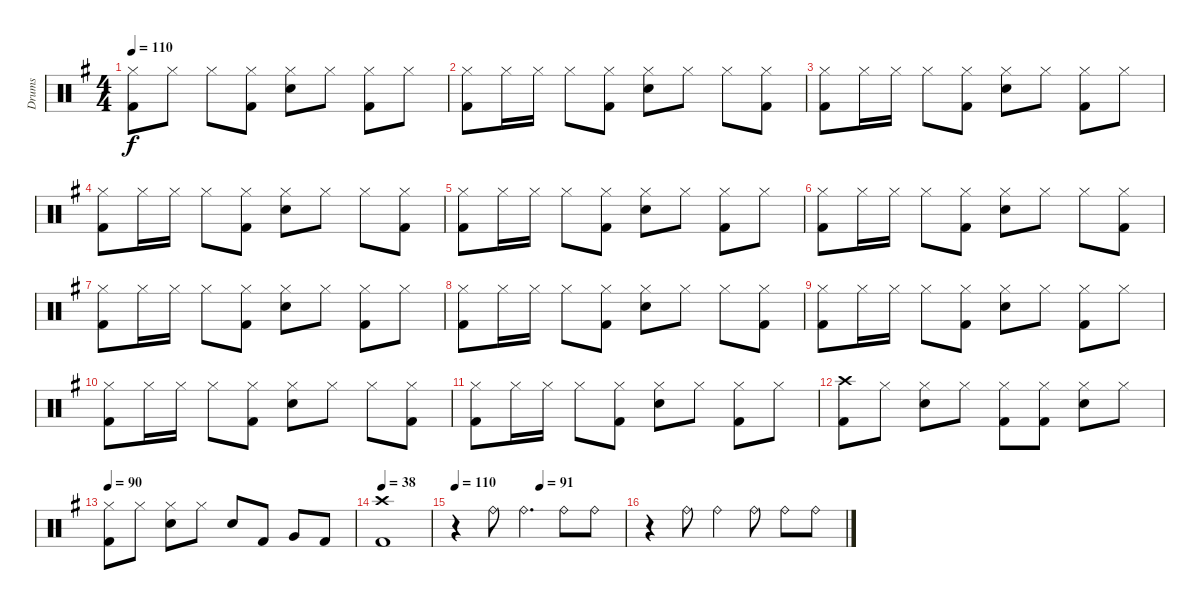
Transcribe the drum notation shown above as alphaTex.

\track ("Drums" "Drums") {instrument percussion}
\staff {score}
\articulation defaults
\ts (4 4)
\tempo 110
\clef neutral
\ks eminor
("Hi-Hat (closed)" "Kick (hit) 2").8{dy f} "Hi-Hat (closed)".8 "Hi-Hat (closed)".8 ("Hi-Hat (closed)" "Kick (hit) 2").8 ("Hi-Hat (closed)" "Electric Snare (hit)").8 "Hi-Hat (closed)".8 ("Hi-Hat (closed)" "Kick (hit) 2").8 "Hi-Hat (closed)".8 |
("Hi-Hat (closed)" "Kick (hit) 2").8 "Hi-Hat (closed)".16 "Hi-Hat (closed)".16 "Hi-Hat (closed)".8 ("Hi-Hat (closed)" "Kick (hit) 2").8 ("Hi-Hat (closed)" "Electric Snare (hit)").8 "Hi-Hat (closed)".8 "Hi-Hat (closed)".8 ("Hi-Hat (closed)" "Kick (hit) 2").8 |
("Hi-Hat (closed)" "Kick (hit) 2").8 "Hi-Hat (closed)".16 "Hi-Hat (closed)".16 "Hi-Hat (closed)".8 ("Hi-Hat (closed)" "Kick (hit) 2").8 ("Hi-Hat (closed)" "Electric Snare (hit)").8 "Hi-Hat (closed)".8 ("Hi-Hat (closed)" "Kick (hit) 2").8 "Hi-Hat (closed)".8 |
("Hi-Hat (closed)" "Kick (hit) 2").8 "Hi-Hat (closed)".16 "Hi-Hat (closed)".16 "Hi-Hat (closed)".8 ("Hi-Hat (closed)" "Kick (hit) 2").8 ("Hi-Hat (closed)" "Electric Snare (hit)").8 "Hi-Hat (closed)".8 "Hi-Hat (closed)".8 ("Hi-Hat (closed)" "Kick (hit) 2").8 |
("Hi-Hat (closed)" "Kick (hit) 2").8 "Hi-Hat (closed)".16 "Hi-Hat (closed)".16 "Hi-Hat (closed)".8 ("Hi-Hat (closed)" "Kick (hit) 2").8 ("Hi-Hat (closed)" "Electric Snare (hit)").8 "Hi-Hat (closed)".8 ("Hi-Hat (closed)" "Kick (hit) 2").8 "Hi-Hat (closed)".8 |
("Hi-Hat (closed)" "Kick (hit) 2").8 "Hi-Hat (closed)".16 "Hi-Hat (closed)".16 "Hi-Hat (closed)".8 ("Hi-Hat (closed)" "Kick (hit) 2").8 ("Hi-Hat (closed)" "Electric Snare (hit)").8 "Hi-Hat (closed)".8 "Hi-Hat (closed)".8 ("Hi-Hat (closed)" "Kick (hit) 2").8 |
("Hi-Hat (closed)" "Kick (hit) 2").8 "Hi-Hat (closed)".16 "Hi-Hat (closed)".16 "Hi-Hat (closed)".8 ("Hi-Hat (closed)" "Kick (hit) 2").8 ("Hi-Hat (closed)" "Electric Snare (hit)").8 "Hi-Hat (closed)".8 ("Hi-Hat (closed)" "Kick (hit) 2").8 "Hi-Hat (closed)".8 |
("Hi-Hat (closed)" "Kick (hit) 2").8 "Hi-Hat (closed)".16 "Hi-Hat (closed)".16 "Hi-Hat (closed)".8 ("Hi-Hat (closed)" "Kick (hit) 2").8 ("Hi-Hat (closed)" "Electric Snare (hit)").8 "Hi-Hat (closed)".8 "Hi-Hat (closed)".8 ("Hi-Hat (closed)" "Kick (hit) 2").8 |
("Hi-Hat (closed)" "Kick (hit) 2").8 "Hi-Hat (closed)".16 "Hi-Hat (closed)".16 "Hi-Hat (closed)".8 ("Hi-Hat (closed)" "Kick (hit) 2").8 ("Hi-Hat (closed)" "Electric Snare (hit)").8 "Hi-Hat (closed)".8 ("Hi-Hat (closed)" "Kick (hit) 2").8 "Hi-Hat (closed)".8 |
("Hi-Hat (closed)" "Kick (hit) 2").8 "Hi-Hat (closed)".16 "Hi-Hat (closed)".16 "Hi-Hat (closed)".8 ("Hi-Hat (closed)" "Kick (hit) 2").8 ("Hi-Hat (closed)" "Electric Snare (hit)").8 "Hi-Hat (closed)".8 "Hi-Hat (closed)".8 ("Hi-Hat (closed)" "Kick (hit) 2").8 |
("Hi-Hat (closed)" "Kick (hit) 2").8 "Hi-Hat (closed)".16 "Hi-Hat (closed)".16 "Hi-Hat (closed)".8 ("Hi-Hat (closed)" "Kick (hit) 2").8 ("Hi-Hat (closed)" "Electric Snare (hit)").8 "Hi-Hat (closed)".8 ("Hi-Hat (closed)" "Kick (hit) 2").8 "Hi-Hat (closed)".8 |
("Crash high (hit)" "Kick (hit) 2").8 "Hi-Hat (closed)".8 ("Hi-Hat (closed)" "Electric Snare (hit)").8 "Hi-Hat (closed)".8 ("Hi-Hat (closed)" "Kick (hit) 2").8 ("Hi-Hat (closed)" "Kick (hit) 2").8 ("Hi-Hat (closed)" "Electric Snare (hit)").8 "Hi-Hat (closed)".8 |
\tempo 90
("Hi-Hat (closed)" "Kick (hit) 2").8 "Hi-Hat (closed)".8 ("Hi-Hat (closed)" "Electric Snare (hit)").8 "Hi-Hat (closed)".8 "Electric Snare (hit)".8 "Kick (hit) 2".8 "Very Low Tom (hit)".8 "Kick (hit) 2".8 |
\tempo 38
("Crash high (hit)" "Kick (hit) 2").1 |
\tempo 110
\tempo (91 0.5)
r.4 "Ride (bell)".8 "Ride (bell)".4{d} "Ride (bell)".8 "Ride (bell)".8 |
r.4 "Ride (bell)".8 "Ride (bell)".4 "Ride (bell)".8 "Ride (bell)".8 "Ride (bell)".8
